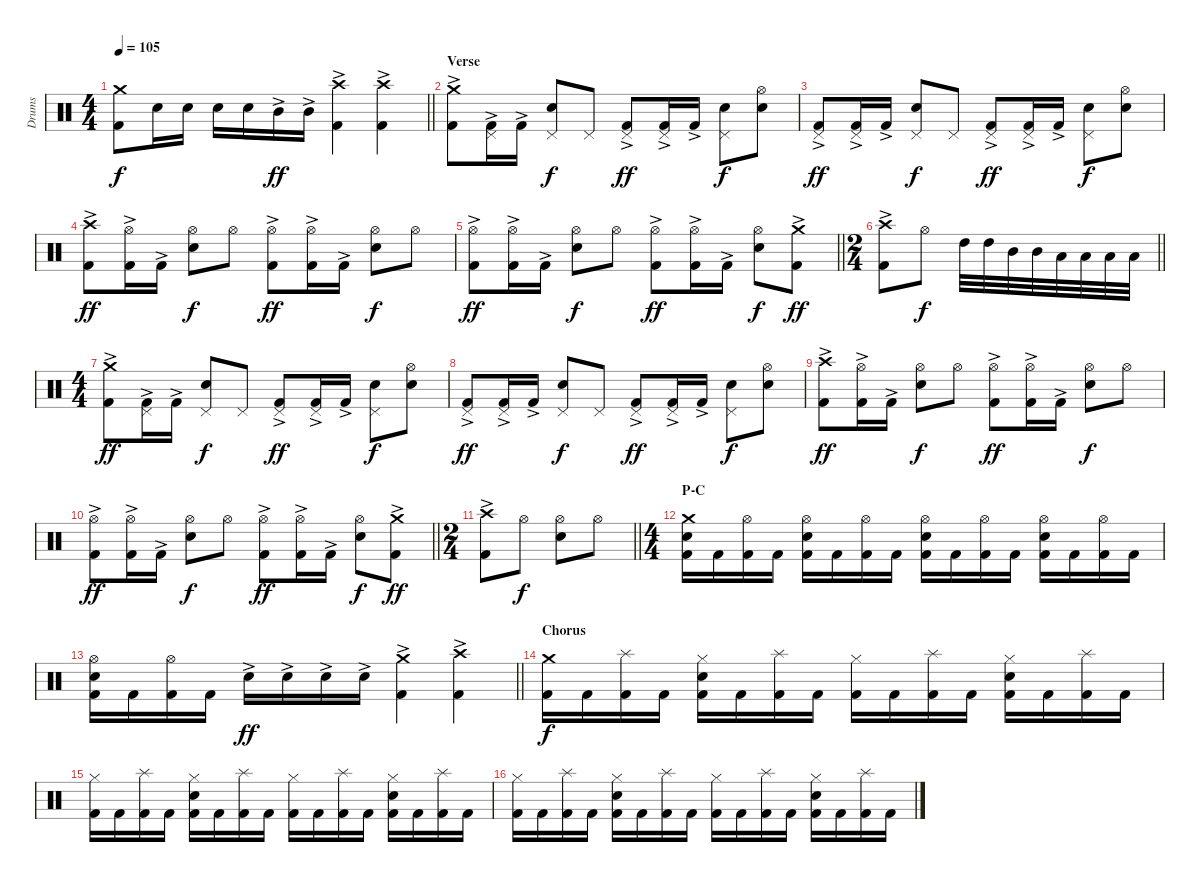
\track ("Drums" "Drums") {instrument percussion}
\staff {score}
\articulation defaults
\ts (4 4)
\tempo 105
\clef neutral
\barLineRight lightlight
\ks c
("Kick (hit) 2" "Crash medium (hit)").8{dy f} "Snare (hit) 2".16 "Snare (hit) 2".16 "Snare (hit) 2".16 "Snare (hit) 2".16 "Mid Tom (hit)"{ac}.16{dy ff} "Mid Tom (hit)"{ac}.16 ("Kick (hit) 2"{ac} "Crash high (hit)").4 ("Kick (hit) 2"{ac} "Crash high (hit)").4 |
\section ("" "Verse")
("Kick (hit) 2"{ac} "Crash medium (hit)").8 ("Kick (hit) 2"{ac} "Pedal Hi-Hat (hit)").16 "Kick (hit) 2"{ac}.16 ("Snare (hit) 2" "Pedal Hi-Hat (hit)").8{dy f} "Pedal Hi-Hat (hit)".8 ("Kick (hit) 2"{ac} "Pedal Hi-Hat (hit)").8{dy ff} ("Kick (hit) 2"{ac} "Pedal Hi-Hat (hit)").16 "Kick (hit) 2"{ac}.16 ("Snare (hit) 2" "Pedal Hi-Hat (hit)").8{dy f} ("Snare (hit) 2" "Hi-Hat (open)").8 |
("Kick (hit) 2"{ac} "Pedal Hi-Hat (hit)").8{dy ff} ("Kick (hit) 2"{ac} "Pedal Hi-Hat (hit)").16 "Kick (hit) 2"{ac}.16 ("Snare (hit) 2" "Pedal Hi-Hat (hit)").8{dy f} "Pedal Hi-Hat (hit)".8 ("Kick (hit) 2"{ac} "Pedal Hi-Hat (hit)").8{dy ff} ("Kick (hit) 2"{ac} "Pedal Hi-Hat (hit)").16 "Kick (hit) 2"{ac}.16 ("Snare (hit) 2" "Pedal Hi-Hat (hit)").8{dy f} ("Snare (hit) 2" "Hi-Hat (open)").8 |
("Kick (hit) 2"{ac} "Crash high (hit)").8{dy ff} ("Kick (hit) 2"{ac} "Hi-Hat (open)").16 "Kick (hit) 2"{ac}.16 ("Snare (hit) 2" "Hi-Hat (open)").8{dy f} "Hi-Hat (open)".8 ("Kick (hit) 2"{ac} "Hi-Hat (open)").8{dy ff} ("Kick (hit) 2"{ac} "Hi-Hat (open)").16 "Kick (hit) 2"{ac}.16 ("Snare (hit) 2" "Hi-Hat (open)").8{dy f} "Hi-Hat (open)".8 |
\barLineRight lightlight
("Kick (hit) 2"{ac} "Hi-Hat (open)").8{dy ff} ("Kick (hit) 2"{ac} "Hi-Hat (open)").16 "Kick (hit) 2"{ac}.16 ("Snare (hit) 2" "Hi-Hat (open)").8{dy f} "Hi-Hat (open)".8 ("Kick (hit) 2"{ac} "Hi-Hat (open)").8{dy ff} ("Kick (hit) 2"{ac} "Hi-Hat (open)").16 "Kick (hit) 2"{ac}.16 ("Snare (hit) 2" "Hi-Hat (open)").8{dy f} ("Kick (hit) 2"{ac} "Crash medium (hit)").8{dy ff} |
\ts (2 4)
\barLineRight lightlight
("Kick (hit) 2"{ac} "Crash high (hit)").8 "Hi-Hat (open)".8{dy f} "High Tom (hit)".32 "High Tom (hit)".32 "Mid Tom (hit)".32 "Mid Tom (hit)".32 "Low Tom (hit)".32 "Low Tom (hit)".32 "Low Tom (hit)".32 "Low Tom (hit)".32 |
\ts (4 4)
\section ("" "")
("Kick (hit) 2"{ac} "Crash medium (hit)").8{dy ff} ("Kick (hit) 2"{ac} "Pedal Hi-Hat (hit)").16 "Kick (hit) 2"{ac}.16 ("Snare (hit) 2" "Pedal Hi-Hat (hit)").8{dy f} "Pedal Hi-Hat (hit)".8 ("Kick (hit) 2"{ac} "Pedal Hi-Hat (hit)").8{dy ff} ("Kick (hit) 2"{ac} "Pedal Hi-Hat (hit)").16 "Kick (hit) 2"{ac}.16 ("Snare (hit) 2" "Pedal Hi-Hat (hit)").8{dy f} ("Snare (hit) 2" "Hi-Hat (open)").8 |
("Kick (hit) 2"{ac} "Pedal Hi-Hat (hit)").8{dy ff} ("Kick (hit) 2"{ac} "Pedal Hi-Hat (hit)").16 "Kick (hit) 2"{ac}.16 ("Snare (hit) 2" "Pedal Hi-Hat (hit)").8{dy f} "Pedal Hi-Hat (hit)".8 ("Kick (hit) 2"{ac} "Pedal Hi-Hat (hit)").8{dy ff} ("Kick (hit) 2"{ac} "Pedal Hi-Hat (hit)").16 "Kick (hit) 2"{ac}.16 ("Snare (hit) 2" "Pedal Hi-Hat (hit)").8{dy f} ("Snare (hit) 2" "Hi-Hat (open)").8 |
("Kick (hit) 2"{ac} "Crash high (hit)").8{dy ff} ("Kick (hit) 2"{ac} "Hi-Hat (open)").16 "Kick (hit) 2"{ac}.16 ("Snare (hit) 2" "Hi-Hat (open)").8{dy f} "Hi-Hat (open)".8 ("Kick (hit) 2"{ac} "Hi-Hat (open)").8{dy ff} ("Kick (hit) 2"{ac} "Hi-Hat (open)").16 "Kick (hit) 2"{ac}.16 ("Snare (hit) 2" "Hi-Hat (open)").8{dy f} "Hi-Hat (open)".8 |
\barLineRight lightlight
("Kick (hit) 2"{ac} "Hi-Hat (open)").8{dy ff} ("Kick (hit) 2"{ac} "Hi-Hat (open)").16 "Kick (hit) 2"{ac}.16 ("Snare (hit) 2" "Hi-Hat (open)").8{dy f} "Hi-Hat (open)".8 ("Kick (hit) 2"{ac} "Hi-Hat (open)").8{dy ff} ("Kick (hit) 2"{ac} "Hi-Hat (open)").16 "Kick (hit) 2"{ac}.16 ("Snare (hit) 2" "Hi-Hat (open)").8{dy f} ("Kick (hit) 2"{ac} "Crash medium (hit)").8{dy ff} |
\ts (2 4)
\barLineRight lightlight
("Kick (hit) 2"{ac} "Crash high (hit)").8 "Hi-Hat (open)".8{dy f} ("Snare (hit) 2" "Hi-Hat (open)").8 "Hi-Hat (open)".8 |
\ts (4 4)
\section ("" "P-C")
("Kick (hit) 2" "Snare (hit) 2" "Crash medium (hit)").16 "Kick (hit) 2".16 ("Kick (hit) 2" "Hi-Hat (open)").16 "Kick (hit) 2".16 ("Kick (hit) 2" "Snare (hit) 2" "Hi-Hat (open)").16 "Kick (hit) 2".16 ("Kick (hit) 2" "Hi-Hat (open)").16 "Kick (hit) 2".16 ("Kick (hit) 2" "Snare (hit) 2" "Hi-Hat (open)").16 "Kick (hit) 2".16 ("Kick (hit) 2" "Hi-Hat (open)").16 "Kick (hit) 2".16 ("Kick (hit) 2" "Snare (hit) 2" "Hi-Hat (open)").16 "Kick (hit) 2".16 ("Kick (hit) 2" "Hi-Hat (open)").16 "Kick (hit) 2".16 |
\barLineRight lightlight
("Kick (hit) 2" "Snare (hit) 2" "Hi-Hat (open)").16 "Kick (hit) 2".16 ("Kick (hit) 2" "Hi-Hat (open)").16 "Kick (hit) 2".16 "Snare (hit) 2"{ac}.16{dy ff} "Snare (hit) 2"{ac}.16 "Snare (hit) 2"{ac}.16 "Snare (hit) 2"{ac}.16 ("Kick (hit) 2"{ac} "Crash medium (hit)").4 ("Kick (hit) 2"{ac} "Crash high (hit)").4 |
\section ("" "Chorus")
("Kick (hit) 2" "Crash medium (hit)").16{dy f} "Kick (hit) 2".16 ("Kick (hit) 2" "Splash (hit)").16 "Kick (hit) 2".16 ("Kick (hit) 2" "Snare (hit) 2" "Hi-Hat (closed)").16 "Kick (hit) 2".16 ("Kick (hit) 2" "Splash (hit)").16 "Kick (hit) 2".16 ("Kick (hit) 2" "Hi-Hat (closed)").16 "Kick (hit) 2".16 ("Kick (hit) 2" "Splash (hit)").16 "Kick (hit) 2".16 ("Kick (hit) 2" "Snare (hit) 2" "Hi-Hat (closed)").16 "Kick (hit) 2".16 ("Kick (hit) 2" "Splash (hit)").16 "Kick (hit) 2".16 |
("Kick (hit) 2" "Hi-Hat (closed)").16 "Kick (hit) 2".16 ("Kick (hit) 2" "Splash (hit)").16 "Kick (hit) 2".16 ("Kick (hit) 2" "Snare (hit) 2" "Hi-Hat (closed)").16 "Kick (hit) 2".16 ("Kick (hit) 2" "Splash (hit)").16 "Kick (hit) 2".16 ("Kick (hit) 2" "Hi-Hat (closed)").16 "Kick (hit) 2".16 ("Kick (hit) 2" "Splash (hit)").16 "Kick (hit) 2".16 ("Kick (hit) 2" "Snare (hit) 2" "Hi-Hat (closed)").16 "Kick (hit) 2".16 ("Kick (hit) 2" "Splash (hit)").16 "Kick (hit) 2".16 |
("Kick (hit) 2" "Hi-Hat (closed)").16 "Kick (hit) 2".16 ("Kick (hit) 2" "Splash (hit)").16 "Kick (hit) 2".16 ("Kick (hit) 2" "Snare (hit) 2" "Hi-Hat (closed)").16 "Kick (hit) 2".16 ("Kick (hit) 2" "Splash (hit)").16 "Kick (hit) 2".16 ("Kick (hit) 2" "Hi-Hat (closed)").16 "Kick (hit) 2".16 ("Kick (hit) 2" "Splash (hit)").16 "Kick (hit) 2".16 ("Kick (hit) 2" "Snare (hit) 2" "Hi-Hat (closed)").16 "Kick (hit) 2".16 ("Kick (hit) 2" "Splash (hit)").16 "Kick (hit) 2".16
